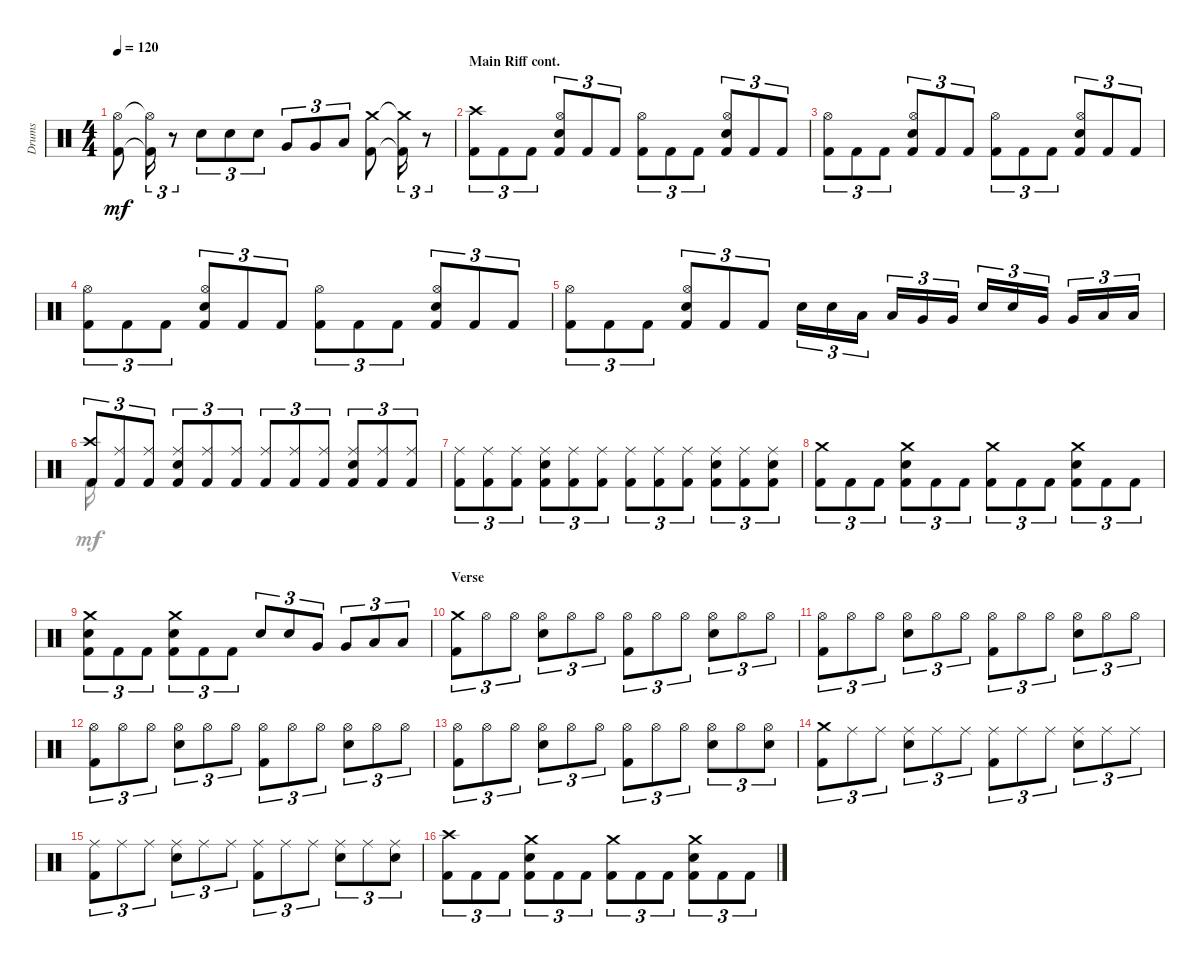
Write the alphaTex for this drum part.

\track ("Drums" "Drums") {instrument percussion}
\staff {score}
\articulation defaults
\voice
\ts (4 4)
\tempo 120
\clef neutral
\ks aminor
("Kick (hit) 2" "Hi-Hat (open)").8{dy mf} ("Kick (hit) 2"{t} "Hi-Hat (open)"{t}).16{tu (3 2)} r.8{tu (3 2)} "Snare (hit) 2".8{tu (3 2)} "Snare (hit) 2".8{tu (3 2)} "Snare (hit) 2".8{tu (3 2)} "Very Low Tom (hit)".8{tu (3 2)} "Very Low Tom (hit)".8{tu (3 2)} "Low Floor Tom (hit)".8{tu (3 2)} ("Kick (hit) 2" "Crash medium (hit)").8 ("Kick (hit) 2"{t} "Crash medium (hit)"{t}).16{tu (3 2)} r.8{tu (3 2)} |
\section ("" "Main Riff cont.")
("Kick (hit) 2" "Crash high (hit)").8{tu (3 2)} "Kick (hit) 2".8{tu (3 2)} "Kick (hit) 2".8{tu (3 2)} ("Kick (hit) 2" "Snare (hit) 2" "Hi-Hat (open)").8{tu (3 2)} "Kick (hit) 2".8{tu (3 2)} "Kick (hit) 2".8{tu (3 2)} ("Hi-Hat (open)" "Kick (hit) 2").8{tu (3 2)} "Kick (hit) 2".8{tu (3 2)} "Kick (hit) 2".8{tu (3 2)} ("Kick (hit) 2" "Snare (hit) 2" "Hi-Hat (open)").8{tu (3 2)} "Kick (hit) 2".8{tu (3 2)} "Kick (hit) 2".8{tu (3 2)} |
("Kick (hit) 2" "Hi-Hat (open)").8{tu (3 2)} "Kick (hit) 2".8{tu (3 2)} "Kick (hit) 2".8{tu (3 2)} ("Snare (hit) 2" "Hi-Hat (open)" "Kick (hit) 2").8{tu (3 2)} "Kick (hit) 2".8{tu (3 2)} "Kick (hit) 2".8{tu (3 2)} ("Kick (hit) 2" "Hi-Hat (open)").8{tu (3 2)} "Kick (hit) 2".8{tu (3 2)} "Kick (hit) 2".8{tu (3 2)} ("Kick (hit) 2" "Snare (hit) 2" "Hi-Hat (open)").8{tu (3 2)} "Kick (hit) 2".8{tu (3 2)} "Kick (hit) 2".8{tu (3 2)} |
("Hi-Hat (open)" "Kick (hit) 2").8{tu (3 2)} "Kick (hit) 2".8{tu (3 2)} "Kick (hit) 2".8{tu (3 2)} ("Kick (hit) 2" "Snare (hit) 2" "Hi-Hat (open)").8{tu (3 2)} "Kick (hit) 2".8{tu (3 2)} "Kick (hit) 2".8{tu (3 2)} ("Hi-Hat (open)" "Kick (hit) 2").8{tu (3 2)} "Kick (hit) 2".8{tu (3 2)} "Kick (hit) 2".8{tu (3 2)} ("Snare (hit) 2" "Hi-Hat (open)" "Kick (hit) 2").8{tu (3 2)} "Kick (hit) 2".8{tu (3 2)} "Kick (hit) 2".8{tu (3 2)} |
("Kick (hit) 2" "Hi-Hat (open)").8{tu (3 2)} "Kick (hit) 2".8{tu (3 2)} "Kick (hit) 2".8{tu (3 2)} ("Kick (hit) 2" "Snare (hit) 2" "Hi-Hat (open)").8{tu (3 2)} "Kick (hit) 2".8{tu (3 2)} "Kick (hit) 2".8{tu (3 2)} "Snare (hit) 2".16{tu (3 2)} "Snare (hit) 2".16{tu (3 2)} "Low Tom (hit)".16{tu (3 2)} "Low Tom (hit)".16{tu (3 2)} "Very Low Tom (hit)".16{tu (3 2)} "Very Low Tom (hit)".16{tu (3 2)} "Snare (hit) 2".16{tu (3 2)} "Snare (hit) 2".16{tu (3 2)} "Very Low Tom (hit)".16{tu (3 2)} "Very Low Tom (hit)".16{tu (3 2)} "Low Floor Tom (hit)".16{tu (3 2)} "Low Floor Tom (hit)".16{tu (3 2)} |
("Crash high (hit)" "Kick (hit) 2").8{tu (3 2)} ("Kick (hit) 2" "Ride (middle)").8{tu (3 2)} ("Ride (middle)" "Kick (hit) 2").8{tu (3 2)} ("Snare (hit) 2" "Kick (hit) 2" "Ride (middle)").8{tu (3 2)} ("Kick (hit) 2" "Ride (middle)").8{tu (3 2)} ("Kick (hit) 2" "Ride (middle)").8{tu (3 2)} ("Kick (hit) 2" "Ride (middle)").8{tu (3 2)} ("Kick (hit) 2" "Ride (middle)").8{tu (3 2)} ("Ride (middle)" "Kick (hit) 2").8{tu (3 2)} ("Kick (hit) 2" "Ride (middle)" "Snare (hit) 2").8{tu (3 2)} ("Ride (middle)" "Kick (hit) 2").8{tu (3 2)} ("Ride (middle)" "Kick (hit) 2").8{tu (3 2)} |
("Kick (hit) 2" "Ride (middle)").8{tu (3 2)} ("Ride (middle)" "Kick (hit) 2").8{tu (3 2)} ("Ride (middle)" "Kick (hit) 2").8{tu (3 2)} ("Kick (hit) 2" "Ride (middle)" "Snare (hit) 2").8{tu (3 2)} ("Ride (middle)" "Kick (hit) 2").8{tu (3 2)} ("Kick (hit) 2" "Ride (middle)").8{tu (3 2)} ("Ride (middle)" "Kick (hit) 2").8{tu (3 2)} ("Ride (middle)" "Kick (hit) 2").8{tu (3 2)} ("Ride (middle)" "Kick (hit) 2").8{tu (3 2)} ("Ride (middle)" "Kick (hit) 2" "Snare (hit) 2").8{tu (3 2)} ("Ride (middle)" "Kick (hit) 2").8{tu (3 2)} ("Ride (middle)" "Kick (hit) 2" "Snare (hit) 2").8{tu (3 2)} |
("Kick (hit) 2" "Crash medium (hit)").8{tu (3 2)} "Kick (hit) 2".8{tu (3 2)} "Kick (hit) 2".8{tu (3 2)} ("Snare (hit) 2" "Kick (hit) 2" "Crash medium (hit)").8{tu (3 2)} "Kick (hit) 2".8{tu (3 2)} "Kick (hit) 2".8{tu (3 2)} ("Crash medium (hit)" "Kick (hit) 2").8{tu (3 2)} "Kick (hit) 2".8{tu (3 2)} "Kick (hit) 2".8{tu (3 2)} ("Crash medium (hit)" "Kick (hit) 2" "Snare (hit) 2").8{tu (3 2)} "Kick (hit) 2".8{tu (3 2)} "Kick (hit) 2".8{tu (3 2)} |
("Snare (hit) 2" "Kick (hit) 2" "Crash medium (hit)").8{tu (3 2)} "Kick (hit) 2".8{tu (3 2)} "Kick (hit) 2".8{tu (3 2)} ("Snare (hit) 2" "Kick (hit) 2" "Crash medium (hit)").8{tu (3 2)} "Kick (hit) 2".8{tu (3 2)} "Kick (hit) 2".8{tu (3 2)} "Snare (hit) 2".8{tu (3 2)} "Snare (hit) 2".8{tu (3 2)} "Very Low Tom (hit)".8{tu (3 2)} "Very Low Tom (hit)".8{tu (3 2)} "Low Floor Tom (hit)".8{tu (3 2)} "Low Floor Tom (hit)".8{tu (3 2)} |
\section ("" "Verse")
("Kick (hit) 2" "Crash medium (hit)").8{tu (3 2)} "Hi-Hat (open)".8{tu (3 2)} "Hi-Hat (open)".8{tu (3 2)} ("Snare (hit) 2" "Hi-Hat (open)").8{tu (3 2)} "Hi-Hat (open)".8{tu (3 2)} "Hi-Hat (open)".8{tu (3 2)} ("Kick (hit) 2" "Hi-Hat (open)").8{tu (3 2)} "Hi-Hat (open)".8{tu (3 2)} "Hi-Hat (open)".8{tu (3 2)} ("Hi-Hat (open)" "Snare (hit) 2").8{tu (3 2)} "Hi-Hat (open)".8{tu (3 2)} "Hi-Hat (open)".8{tu (3 2)} |
("Hi-Hat (open)" "Kick (hit) 2").8{tu (3 2)} "Hi-Hat (open)".8{tu (3 2)} "Hi-Hat (open)".8{tu (3 2)} ("Snare (hit) 2" "Hi-Hat (open)").8{tu (3 2)} "Hi-Hat (open)".8{tu (3 2)} "Hi-Hat (open)".8{tu (3 2)} ("Kick (hit) 2" "Hi-Hat (open)").8{tu (3 2)} "Hi-Hat (open)".8{tu (3 2)} "Hi-Hat (open)".8{tu (3 2)} ("Snare (hit) 2" "Hi-Hat (open)").8{tu (3 2)} "Hi-Hat (open)".8{tu (3 2)} "Hi-Hat (open)".8{tu (3 2)} |
("Hi-Hat (open)" "Kick (hit) 2").8{tu (3 2)} "Hi-Hat (open)".8{tu (3 2)} "Hi-Hat (open)".8{tu (3 2)} ("Snare (hit) 2" "Hi-Hat (open)").8{tu (3 2)} "Hi-Hat (open)".8{tu (3 2)} "Hi-Hat (open)".8{tu (3 2)} ("Hi-Hat (open)" "Kick (hit) 2").8{tu (3 2)} "Hi-Hat (open)".8{tu (3 2)} "Hi-Hat (open)".8{tu (3 2)} ("Hi-Hat (open)" "Snare (hit) 2").8{tu (3 2)} "Hi-Hat (open)".8{tu (3 2)} "Hi-Hat (open)".8{tu (3 2)} |
("Hi-Hat (open)" "Kick (hit) 2").8{tu (3 2)} "Hi-Hat (open)".8{tu (3 2)} "Hi-Hat (open)".8{tu (3 2)} ("Snare (hit) 2" "Hi-Hat (open)").8{tu (3 2)} "Hi-Hat (open)".8{tu (3 2)} "Hi-Hat (open)".8{tu (3 2)} ("Kick (hit) 2" "Hi-Hat (open)").8{tu (3 2)} "Hi-Hat (open)".8{tu (3 2)} "Hi-Hat (open)".8{tu (3 2)} ("Hi-Hat (open)" "Snare (hit) 2").8{tu (3 2)} "Hi-Hat (open)".8{tu (3 2)} ("Hi-Hat (open)" "Snare (hit) 2").8{tu (3 2)} |
("Crash medium (hit)" "Kick (hit) 2").8{tu (3 2)} "Ride (middle)".8{tu (3 2)} "Ride (middle)".8{tu (3 2)} ("Snare (hit) 2" "Ride (middle)").8{tu (3 2)} "Ride (middle)".8{tu (3 2)} "Ride (middle)".8{tu (3 2)} ("Ride (middle)" "Kick (hit) 2").8{tu (3 2)} "Ride (middle)".8{tu (3 2)} "Ride (middle)".8{tu (3 2)} ("Snare (hit) 2" "Ride (middle)").8{tu (3 2)} "Ride (middle)".8{tu (3 2)} "Ride (middle)".8{tu (3 2)} |
("Ride (middle)" "Kick (hit) 2").8{tu (3 2)} "Ride (middle)".8{tu (3 2)} "Ride (middle)".8{tu (3 2)} ("Ride (middle)" "Snare (hit) 2").8{tu (3 2)} "Ride (middle)".8{tu (3 2)} "Ride (middle)".8{tu (3 2)} ("Kick (hit) 2" "Ride (middle)").8{tu (3 2)} "Ride (middle)".8{tu (3 2)} "Ride (middle)".8{tu (3 2)} ("Snare (hit) 2" "Ride (middle)").8{tu (3 2)} "Ride (middle)".8{tu (3 2)} ("Ride (middle)" "Snare (hit) 2").8{tu (3 2)} |
("Crash high (hit)" "Kick (hit) 2").8{tu (3 2)} "Kick (hit) 2".8{tu (3 2)} "Kick (hit) 2".8{tu (3 2)} ("Kick (hit) 2" "Snare (hit) 2" "Crash medium (hit)").8{tu (3 2)} "Kick (hit) 2".8{tu (3 2)} "Kick (hit) 2".8{tu (3 2)} ("Kick (hit) 2" "Crash medium (hit)").8{tu (3 2)} "Kick (hit) 2".8{tu (3 2)} "Kick (hit) 2".8{tu (3 2)} ("Kick (hit) 2" "Crash medium (hit)" "Snare (hit) 2").8{tu (3 2)} "Kick (hit) 2".8{tu (3 2)} "Kick (hit) 2".8{tu (3 2)}
\voice
\clef neutral
\ottava regular
\simile none
\ks aminor
|
|
|
|
|
"Kick (hit) 2".16 |
|
|
|
|
|
|
|
|
|
